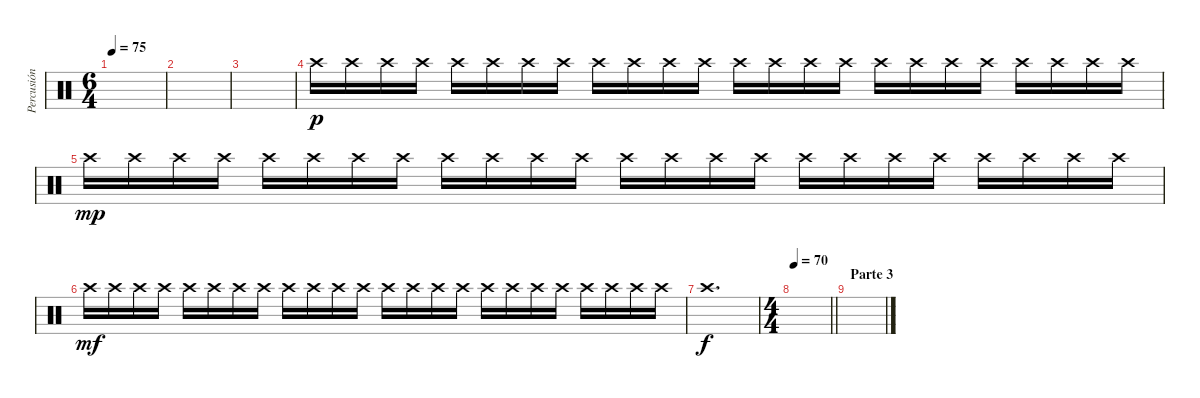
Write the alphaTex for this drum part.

\track ("Percusión" "Percusión") {instrument percussion}
\staff {score}
\articulation defaults
\ts (6 4)
\tempo 75
\clef neutral
\ks c
|
|
|
"Crash high (hit)".16{dy p} "Crash high (hit)".16 "Crash high (hit)".16 "Crash high (hit)".16 "Crash high (hit)".16 "Crash high (hit)".16 "Crash high (hit)".16 "Crash high (hit)".16 "Crash high (hit)".16 "Crash high (hit)".16 "Crash high (hit)".16 "Crash high (hit)".16 "Crash high (hit)".16 "Crash high (hit)".16 "Crash high (hit)".16 "Crash high (hit)".16 "Crash high (hit)".16 "Crash high (hit)".16 "Crash high (hit)".16 "Crash high (hit)".16 "Crash high (hit)".16 "Crash high (hit)".16 "Crash high (hit)".16 "Crash high (hit)".16 |
"Crash high (hit)".16{dy mp} "Crash high (hit)".16 "Crash high (hit)".16 "Crash high (hit)".16 "Crash high (hit)".16 "Crash high (hit)".16 "Crash high (hit)".16 "Crash high (hit)".16 "Crash high (hit)".16 "Crash high (hit)".16 "Crash high (hit)".16 "Crash high (hit)".16 "Crash high (hit)".16 "Crash high (hit)".16 "Crash high (hit)".16 "Crash high (hit)".16 "Crash high (hit)".16 "Crash high (hit)".16 "Crash high (hit)".16 "Crash high (hit)".16 "Crash high (hit)".16 "Crash high (hit)".16 "Crash high (hit)".16 "Crash high (hit)".16 |
"Crash high (hit)".16{dy mf} "Crash high (hit)".16 "Crash high (hit)".16 "Crash high (hit)".16 "Crash high (hit)".16 "Crash high (hit)".16 "Crash high (hit)".16 "Crash high (hit)".16 "Crash high (hit)".16 "Crash high (hit)".16 "Crash high (hit)".16 "Crash high (hit)".16 "Crash high (hit)".16 "Crash high (hit)".16 "Crash high (hit)".16 "Crash high (hit)".16 "Crash high (hit)".16 "Crash high (hit)".16 "Crash high (hit)".16 "Crash high (hit)".16 "Crash high (hit)".16 "Crash high (hit)".16 "Crash high (hit)".16 "Crash high (hit)".16 |
"Crash high (hit)".1{d dy f} |
\ts (4 4)
\tempo 70
\barLineRight lightlight
|
\section ("" "Parte 3")
